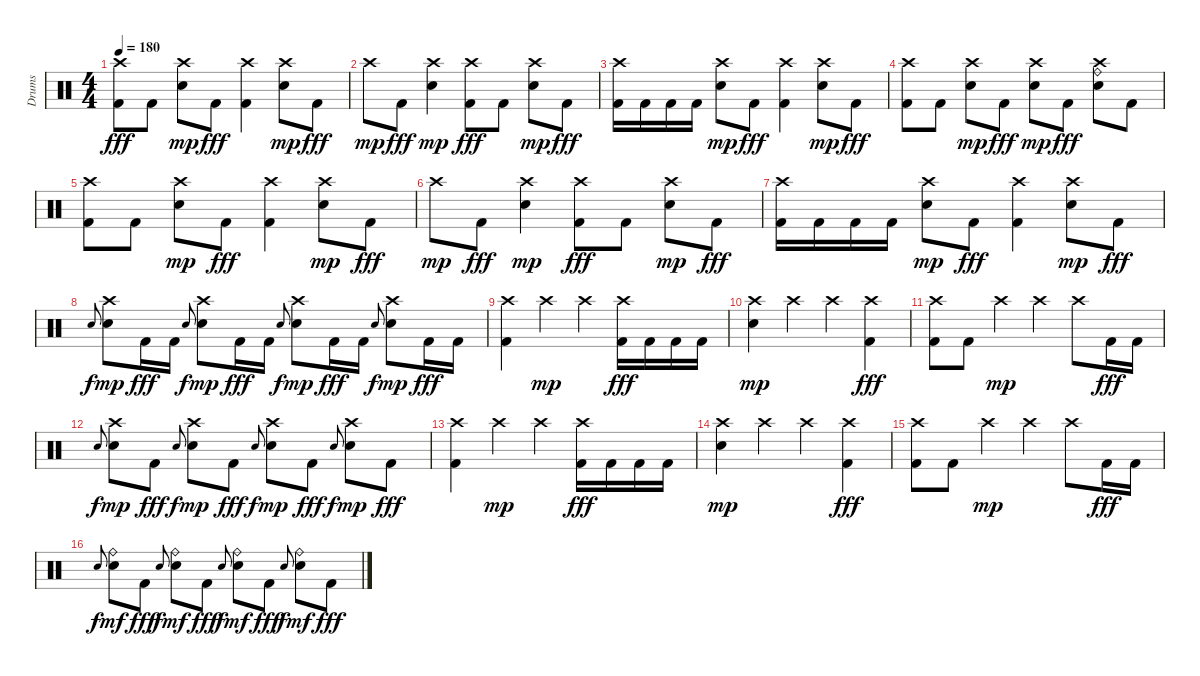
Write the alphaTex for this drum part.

\track ("Drums" "Drums") {instrument percussion}
\staff {score}
\articulation defaults
\ts (4 4)
\tempo 180
\clef neutral
\ks c
("Crash high (hit)" "Kick (hit) 2").8{dy fff} "Kick (hit) 2".8 ("Crash high (hit)" "Electric Snare (hit)").8{dy mp} "Kick (hit) 2".8{dy fff} ("Crash high (hit)" "Kick (hit) 2").4 ("Crash high (hit)" "Electric Snare (hit)").8{dy mp} "Kick (hit) 2".8{dy fff} |
"Crash high (hit)".8{dy mp} "Kick (hit) 2".8{dy fff} ("Crash high (hit)" "Electric Snare (hit)").4{dy mp} ("Crash high (hit)" "Kick (hit) 2").8{dy fff} "Kick (hit) 2".8 ("Crash high (hit)" "Electric Snare (hit)").8{dy mp} "Kick (hit) 2".8{dy fff} |
("Crash high (hit)" "Kick (hit) 2").16 "Kick (hit) 2".16 "Kick (hit) 2".16 "Kick (hit) 2".16 ("Crash high (hit)" "Electric Snare (hit)").8{dy mp} "Kick (hit) 2".8{dy fff} ("Crash high (hit)" "Kick (hit) 2").4 ("Crash high (hit)" "Electric Snare (hit)").8{dy mp} "Kick (hit) 2".8{dy fff} |
("Crash high (hit)" "Kick (hit) 2").8 "Kick (hit) 2".8 ("Crash high (hit)" "Electric Snare (hit)").8{dy mp} "Kick (hit) 2".8{dy fff} ("Crash high (hit)" "Electric Snare (hit)").8{dy mp} "Kick (hit) 2".8{dy fff} ("Crash high (hit)" "Ride (bell)" "Electric Snare (hit)").8 "Kick (hit) 2".8 |
("Crash high (hit)" "Kick (hit) 2").8 "Kick (hit) 2".8 ("Crash high (hit)" "Electric Snare (hit)").8{dy mp} "Kick (hit) 2".8{dy fff} ("Crash high (hit)" "Kick (hit) 2").4 ("Crash high (hit)" "Electric Snare (hit)").8{dy mp} "Kick (hit) 2".8{dy fff} |
"Crash high (hit)".8{dy mp} "Kick (hit) 2".8{dy fff} ("Crash high (hit)" "Electric Snare (hit)").4{dy mp} ("Crash high (hit)" "Kick (hit) 2").8{dy fff} "Kick (hit) 2".8 ("Crash high (hit)" "Electric Snare (hit)").8{dy mp} "Kick (hit) 2".8{dy fff} |
("Crash high (hit)" "Kick (hit) 2").16 "Kick (hit) 2".16 "Kick (hit) 2".16 "Kick (hit) 2".16 ("Crash high (hit)" "Electric Snare (hit)").8{dy mp} "Kick (hit) 2".8{dy fff} ("Crash high (hit)" "Kick (hit) 2").4 ("Crash high (hit)" "Electric Snare (hit)").8{dy mp} "Kick (hit) 2".8{dy fff} |
"Electric Snare (hit)".8{gr onbeat dy f} ("Crash high (hit)" "Electric Snare (hit)").8{dy mp} "Kick (hit) 2".16{dy fff} "Kick (hit) 2".16 "Electric Snare (hit)".8{gr onbeat dy f} ("Crash high (hit)" "Electric Snare (hit)").8{dy mp} "Kick (hit) 2".16{dy fff} "Kick (hit) 2".16 "Electric Snare (hit)".8{gr onbeat dy f} ("Crash high (hit)" "Electric Snare (hit)").8{dy mp} "Kick (hit) 2".16{dy fff} "Kick (hit) 2".16 "Electric Snare (hit)".8{gr onbeat dy f} ("Crash high (hit)" "Electric Snare (hit)").8{dy mp} "Kick (hit) 2".16{dy fff} "Kick (hit) 2".16 |
("Crash high (hit)" "Kick (hit) 2").4 "Crash high (hit)".4{dy mp} "Crash high (hit)".4 ("Crash high (hit)" "Kick (hit) 2").16{dy fff} "Kick (hit) 2".16 "Kick (hit) 2".16 "Kick (hit) 2".16 |
("Crash high (hit)" "Electric Snare (hit)").4{dy mp} "Crash high (hit)".4 "Crash high (hit)".4 ("Crash high (hit)" "Kick (hit) 2").4{dy fff} |
("Crash high (hit)" "Kick (hit) 2").8 "Kick (hit) 2".8 "Crash high (hit)".4{dy mp} "Crash high (hit)".4 "Crash high (hit)".8 "Kick (hit) 2".16{dy fff} "Kick (hit) 2".16 |
"Electric Snare (hit)".8{gr onbeat dy f} ("Crash high (hit)" "Electric Snare (hit)").8{dy mp} "Kick (hit) 2".8{dy fff} "Electric Snare (hit)".8{gr onbeat dy f} ("Crash high (hit)" "Electric Snare (hit)").8{dy mp} "Kick (hit) 2".8{dy fff} "Electric Snare (hit)".8{gr onbeat dy f} ("Crash high (hit)" "Electric Snare (hit)").8{dy mp} "Kick (hit) 2".8{dy fff} "Electric Snare (hit)".8{gr onbeat dy f} ("Crash high (hit)" "Electric Snare (hit)").8{dy mp} "Kick (hit) 2".8{dy fff} |
("Crash high (hit)" "Kick (hit) 2").4 "Crash high (hit)".4{dy mp} "Crash high (hit)".4 ("Crash high (hit)" "Kick (hit) 2").16{dy fff} "Kick (hit) 2".16 "Kick (hit) 2".16 "Kick (hit) 2".16 |
("Crash high (hit)" "Electric Snare (hit)").4{dy mp} "Crash high (hit)".4 "Crash high (hit)".4 ("Crash high (hit)" "Kick (hit) 2").4{dy fff} |
("Crash high (hit)" "Kick (hit) 2").8 "Kick (hit) 2".8 "Crash high (hit)".4{dy mp} "Crash high (hit)".4 "Crash high (hit)".8 "Kick (hit) 2".16{dy fff} "Kick (hit) 2".16 |
"Electric Snare (hit)".8{gr onbeat dy f} ("Ride (bell)" "Electric Snare (hit)").8{dy mf} "Kick (hit) 2".8{dy fff} "Electric Snare (hit)".8{gr onbeat dy f} ("Ride (bell)" "Electric Snare (hit)").8{dy mf} "Kick (hit) 2".8{dy fff} "Electric Snare (hit)".8{gr onbeat dy f} ("Ride (bell)" "Electric Snare (hit)").8{dy mf} "Kick (hit) 2".8{dy fff} "Electric Snare (hit)".8{gr onbeat dy f} ("Ride (bell)" "Electric Snare (hit)").8{dy mf} "Kick (hit) 2".8{dy fff}
